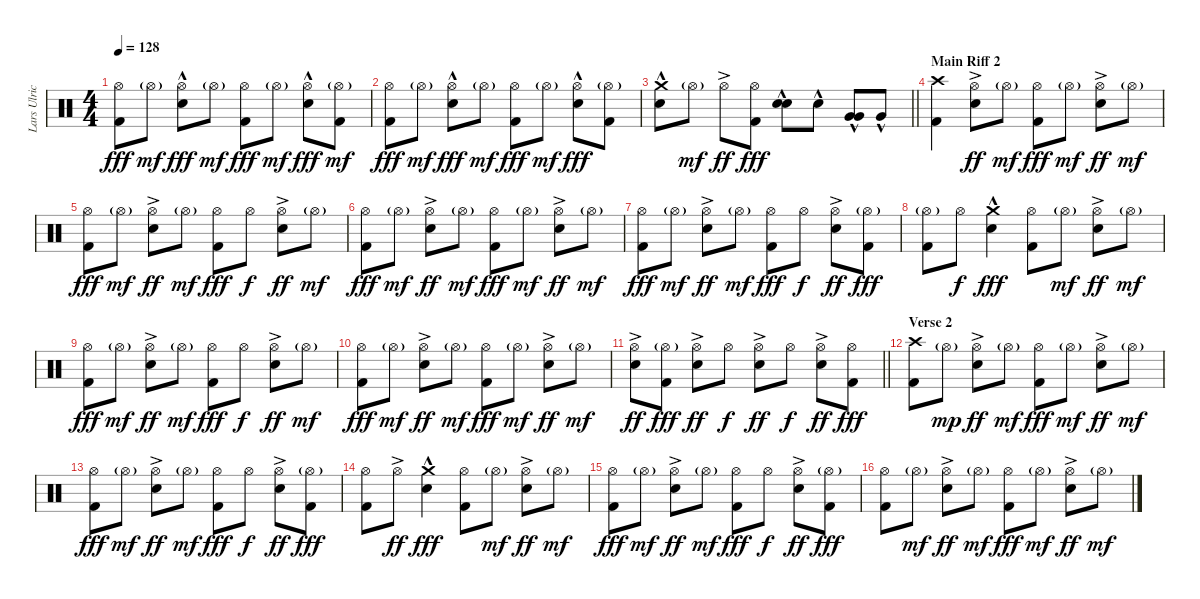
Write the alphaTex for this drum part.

\track ("Lars Ulrich (Drums)" "Lars Ulric") {instrument percussion}
\staff {score}
\articulation defaults
\ts (4 4)
\tempo 128
\clef neutral
\ks c
("Hi-Hat (open)" "Kick (hit) 2").8{dy fff} "Hi-Hat (open)"{g}.8{dy mf} ("Hi-Hat (open)" "Electric Snare (hit)"{hac}).8{dy fff} "Hi-Hat (open)"{g}.8{dy mf} ("Hi-Hat (open)" "Kick (hit) 2").8{dy fff} "Hi-Hat (open)"{g}.8{dy mf} ("Hi-Hat (open)" "Electric Snare (hit)"{hac}).8{dy fff} ("Hi-Hat (open)"{g} "Kick (hit) 2").8{dy mf} |
("Hi-Hat (open)" "Kick (hit) 2").8{dy fff} "Hi-Hat (open)"{g}.8{dy mf} ("Hi-Hat (open)" "Electric Snare (hit)"{hac}).8{dy fff} "Hi-Hat (open)"{g}.8{dy mf} ("Hi-Hat (open)" "Kick (hit) 2").8{dy fff} "Hi-Hat (open)"{g}.8{dy mf} ("Hi-Hat (open)" "Electric Snare (hit)"{hac}).8{dy fff} ("Hi-Hat (open)"{g} "Kick (hit) 2").8 |
\barLineRight lightlight
("Crash medium (hit)" "Electric Snare (hit)"{hac}).8 "Hi-Hat (open)"{g}.8{dy mf} "Hi-Hat (open)"{ac}.8{dy ff} ("Hi-Hat (open)" "Kick (hit) 2").8{dy fff} ("Electric Snare (hit)"{hac} "Electric Snare (hit)"{hac}).8{bd 120} "Electric Snare (hit)"{hac}.8 ("Very Low Tom (hit)"{hac} "Very Low Tom (hit)"{hac}).8{bu 120} "Very Low Tom (hit)"{hac}.8 |
\section ("" "Main Riff 2")
("Crash high (hit)" "Kick (hit) 2").4 ("Hi-Hat (open)"{ac} "Electric Snare (hit)"{ac}).8{dy ff} "Hi-Hat (open)"{g}.8{dy mf} ("Hi-Hat (open)" "Kick (hit) 2").8{dy fff} "Hi-Hat (open)"{g}.8{dy mf} ("Hi-Hat (open)"{ac} "Electric Snare (hit)"{ac}).8{dy ff} "Hi-Hat (open)"{g}.8{dy mf} |
("Hi-Hat (open)" "Kick (hit) 2").8{dy fff} "Hi-Hat (open)"{g}.8{dy mf} ("Hi-Hat (open)"{ac} "Electric Snare (hit)"{ac}).8{dy ff} "Hi-Hat (open)"{g}.8{dy mf} ("Hi-Hat (open)" "Kick (hit) 2").8{dy fff} "Hi-Hat (open)".8{dy f} ("Hi-Hat (open)"{ac} "Electric Snare (hit)"{ac}).8{dy ff} "Hi-Hat (open)"{g}.8{dy mf} |
("Hi-Hat (open)" "Kick (hit) 2").8{dy fff} "Hi-Hat (open)"{g}.8{dy mf} ("Hi-Hat (open)"{ac} "Electric Snare (hit)"{ac}).8{dy ff} "Hi-Hat (open)"{g}.8{dy mf} ("Hi-Hat (open)" "Kick (hit) 2").8{dy fff} "Hi-Hat (open)"{g}.8{dy mf} ("Hi-Hat (open)"{ac} "Electric Snare (hit)"{ac}).8{dy ff} "Hi-Hat (open)"{g}.8{dy mf} |
("Hi-Hat (open)" "Kick (hit) 2").8{dy fff} "Hi-Hat (open)"{g}.8{dy mf} ("Hi-Hat (open)"{ac} "Electric Snare (hit)"{ac}).8{dy ff} "Hi-Hat (open)"{g}.8{dy mf} ("Hi-Hat (open)" "Kick (hit) 2").8{dy fff} "Hi-Hat (open)".8{dy f} ("Hi-Hat (open)"{ac} "Electric Snare (hit)"{ac}).8{dy ff} ("Hi-Hat (open)"{g} "Kick (hit) 2").8{dy fff} |
("Hi-Hat (open)"{g} "Kick (hit) 2").8 "Hi-Hat (open)".8{dy f} ("Crash medium (hit)" "Electric Snare (hit)"{hac}).4{dy fff} ("Hi-Hat (open)" "Kick (hit) 2").8 "Hi-Hat (open)"{g}.8{dy mf} ("Hi-Hat (open)"{ac} "Electric Snare (hit)"{ac}).8{dy ff} "Hi-Hat (open)"{g}.8{dy mf} |
("Hi-Hat (open)" "Kick (hit) 2").8{dy fff} "Hi-Hat (open)"{g}.8{dy mf} ("Hi-Hat (open)"{ac} "Electric Snare (hit)"{ac}).8{dy ff} "Hi-Hat (open)"{g}.8{dy mf} ("Hi-Hat (open)" "Kick (hit) 2").8{dy fff} "Hi-Hat (open)".8{dy f} ("Hi-Hat (open)"{ac} "Electric Snare (hit)"{ac}).8{dy ff} "Hi-Hat (open)"{g}.8{dy mf} |
("Hi-Hat (open)" "Kick (hit) 2").8{dy fff} "Hi-Hat (open)"{g}.8{dy mf} ("Hi-Hat (open)"{ac} "Electric Snare (hit)"{ac}).8{dy ff} "Hi-Hat (open)"{g}.8{dy mf} ("Hi-Hat (open)" "Kick (hit) 2").8{dy fff} "Hi-Hat (open)"{g}.8{dy mf} ("Hi-Hat (open)"{ac} "Electric Snare (hit)"{ac}).8{dy ff} "Hi-Hat (open)"{g}.8{dy mf} |
\barLineRight lightlight
("Hi-Hat (open)"{ac} "Electric Snare (hit)"{ac}).8{dy ff} ("Hi-Hat (open)"{g} "Kick (hit) 2").8{dy fff} ("Hi-Hat (open)"{ac} "Electric Snare (hit)"{ac}).8{dy ff} "Hi-Hat (open)".8{dy f} ("Hi-Hat (open)"{ac} "Electric Snare (hit)"{ac}).8{dy ff} "Hi-Hat (open)".8{dy f} ("Hi-Hat (open)"{ac} "Electric Snare (hit)"{ac}).8{dy ff} ("Hi-Hat (open)" "Kick (hit) 2").8{dy fff} |
\section ("" "Verse 2")
("Crash high (hit)" "Kick (hit) 2").8 "Hi-Hat (open)"{g}.8{dy mp} ("Hi-Hat (open)"{ac} "Electric Snare (hit)"{ac}).8{dy ff} "Hi-Hat (open)"{g}.8{dy mf} ("Hi-Hat (open)" "Kick (hit) 2").8{dy fff} "Hi-Hat (open)"{g}.8{dy mf} ("Hi-Hat (open)"{ac} "Electric Snare (hit)"{ac}).8{dy ff} "Hi-Hat (open)"{g}.8{dy mf} |
("Hi-Hat (open)" "Kick (hit) 2").8{dy fff} "Hi-Hat (open)"{g}.8{dy mf} ("Hi-Hat (open)"{ac} "Electric Snare (hit)"{ac}).8{dy ff} "Hi-Hat (open)"{g}.8{dy mf} ("Hi-Hat (open)" "Kick (hit) 2").8{dy fff} "Hi-Hat (open)".8{dy f} ("Hi-Hat (open)"{ac} "Electric Snare (hit)"{ac}).8{dy ff} ("Hi-Hat (open)"{g} "Kick (hit) 2").8{dy fff} |
("Hi-Hat (open)" "Kick (hit) 2").8 "Hi-Hat (open)"{ac}.8{dy ff} ("Crash medium (hit)" "Electric Snare (hit)"{hac}).4{dy fff} ("Hi-Hat (open)" "Kick (hit) 2").8 "Hi-Hat (open)"{g}.8{dy mf} ("Hi-Hat (open)"{ac} "Electric Snare (hit)"{ac}).8{dy ff} "Hi-Hat (open)"{g}.8{dy mf} |
("Hi-Hat (open)" "Kick (hit) 2").8{dy fff} "Hi-Hat (open)"{g}.8{dy mf} ("Hi-Hat (open)"{ac} "Electric Snare (hit)"{ac}).8{dy ff} "Hi-Hat (open)"{g}.8{dy mf} ("Hi-Hat (open)" "Kick (hit) 2").8{dy fff} "Hi-Hat (open)".8{dy f} ("Hi-Hat (open)"{ac} "Electric Snare (hit)"{ac}).8{dy ff} ("Hi-Hat (open)"{g} "Kick (hit) 2").8{dy fff} |
("Hi-Hat (open)" "Kick (hit) 2").8 "Hi-Hat (open)"{g}.8{dy mf} ("Hi-Hat (open)"{ac} "Electric Snare (hit)"{ac}).8{dy ff} "Hi-Hat (open)"{g}.8{dy mf} ("Hi-Hat (open)" "Kick (hit) 2").8{dy fff} "Hi-Hat (open)"{g}.8{dy mf} ("Hi-Hat (open)"{ac} "Electric Snare (hit)"{ac}).8{dy ff} "Hi-Hat (open)"{g}.8{dy mf}
